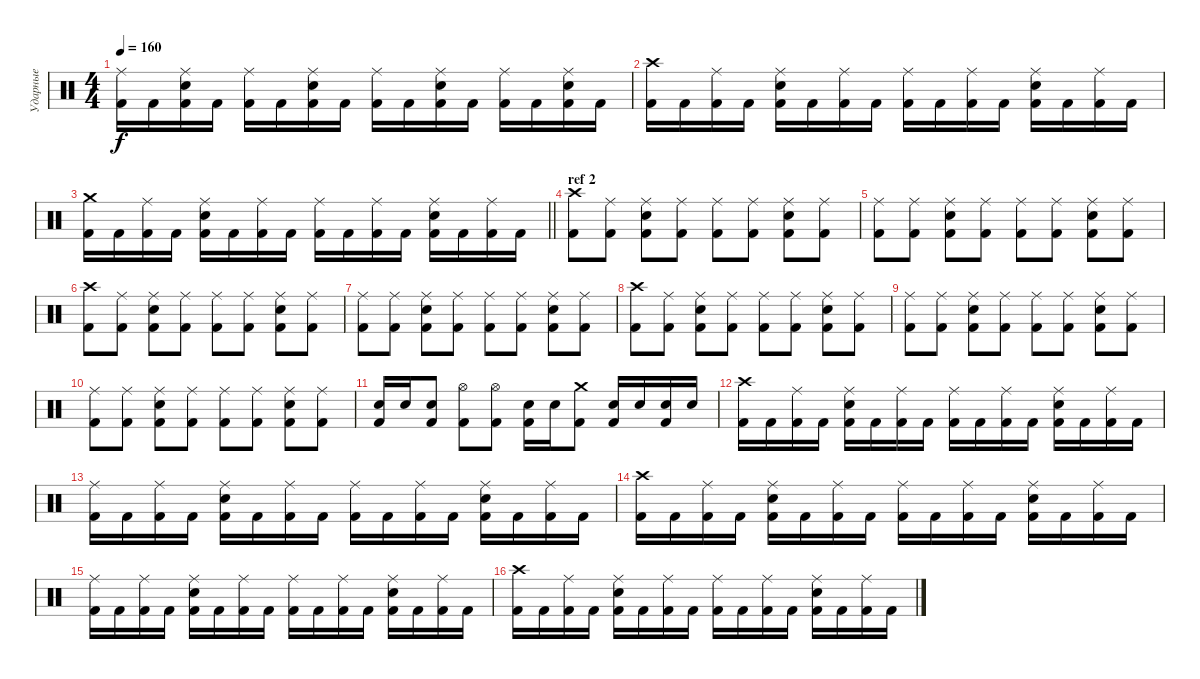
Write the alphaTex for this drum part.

\track ("Ударные" "Ударные") {instrument percussion}
\staff {score}
\articulation defaults
\ts (4 4)
\tempo 160
\clef neutral
\ks c
("Ride (middle)" "Kick (hit) 2").16{dy f} "Kick (hit) 2".16 ("Ride (middle)" "Electric Snare (hit)" "Kick (hit) 2").16 "Kick (hit) 2".16 ("Ride (middle)" "Kick (hit) 2").16 "Kick (hit) 2".16 ("Ride (middle)" "Electric Snare (hit)" "Kick (hit) 2").16 "Kick (hit) 2".16 ("Ride (middle)" "Kick (hit) 2").16 "Kick (hit) 2".16 ("Ride (middle)" "Electric Snare (hit)" "Kick (hit) 2").16 "Kick (hit) 2".16 ("Ride (middle)" "Kick (hit) 2").16 "Kick (hit) 2".16 ("Ride (middle)" "Electric Snare (hit)" "Kick (hit) 2").16 "Kick (hit) 2".16 |
("Crash high (hit)" "Kick (hit) 2").16 "Kick (hit) 2".16 ("Ride (middle)" "Kick (hit) 2").16 "Kick (hit) 2".16 ("Ride (middle)" "Electric Snare (hit)" "Kick (hit) 2").16 "Kick (hit) 2".16 ("Ride (middle)" "Kick (hit) 2").16 "Kick (hit) 2".16 ("Ride (middle)" "Kick (hit) 2").16 "Kick (hit) 2".16 ("Ride (middle)" "Kick (hit) 2").16 "Kick (hit) 2".16 ("Ride (middle)" "Electric Snare (hit)" "Kick (hit) 2").16 "Kick (hit) 2".16 ("Ride (middle)" "Kick (hit) 2").16 "Kick (hit) 2".16 |
\barLineRight lightlight
("Crash medium (hit)" "Kick (hit) 2").16 "Kick (hit) 2".16 ("Ride (middle)" "Kick (hit) 2").16 "Kick (hit) 2".16 ("Ride (middle)" "Electric Snare (hit)" "Kick (hit) 2").16 "Kick (hit) 2".16 ("Ride (middle)" "Kick (hit) 2").16 "Kick (hit) 2".16 ("Ride (middle)" "Kick (hit) 2").16 "Kick (hit) 2".16 ("Ride (middle)" "Kick (hit) 2").16 "Kick (hit) 2".16 ("Ride (middle)" "Electric Snare (hit)" "Kick (hit) 2").16 "Kick (hit) 2".16 ("Ride (middle)" "Kick (hit) 2").16 "Kick (hit) 2".16 |
\section ("" "ref 2")
("Crash high (hit)" "Kick (hit) 2").8 ("Ride (middle)" "Kick (hit) 2").8 ("Ride (middle)" "Electric Snare (hit)" "Kick (hit) 2").8 ("Ride (middle)" "Kick (hit) 2").8 ("Ride (middle)" "Kick (hit) 2").8 ("Ride (middle)" "Kick (hit) 2").8 ("Ride (middle)" "Electric Snare (hit)" "Kick (hit) 2").8 ("Ride (middle)" "Kick (hit) 2").8 |
("Ride (middle)" "Kick (hit) 2").8 ("Ride (middle)" "Kick (hit) 2").8 ("Ride (middle)" "Electric Snare (hit)" "Kick (hit) 2").8 ("Ride (middle)" "Kick (hit) 2").8 ("Ride (middle)" "Kick (hit) 2").8 ("Ride (middle)" "Kick (hit) 2").8 ("Ride (middle)" "Electric Snare (hit)" "Kick (hit) 2").8 ("Ride (middle)" "Kick (hit) 2").8 |
("Crash high (hit)" "Kick (hit) 2").8 ("Ride (middle)" "Kick (hit) 2").8 ("Ride (middle)" "Electric Snare (hit)" "Kick (hit) 2").8 ("Ride (middle)" "Kick (hit) 2").8 ("Ride (middle)" "Kick (hit) 2").8 ("Ride (middle)" "Kick (hit) 2").8 ("Ride (middle)" "Electric Snare (hit)" "Kick (hit) 2").8 ("Ride (middle)" "Kick (hit) 2").8 |
("Ride (middle)" "Kick (hit) 2").8 ("Ride (middle)" "Kick (hit) 2").8 ("Ride (middle)" "Electric Snare (hit)" "Kick (hit) 2").8 ("Ride (middle)" "Kick (hit) 2").8 ("Ride (middle)" "Kick (hit) 2").8 ("Ride (middle)" "Kick (hit) 2").8 ("Ride (middle)" "Electric Snare (hit)" "Kick (hit) 2").8 ("Ride (middle)" "Kick (hit) 2").8 |
("Crash high (hit)" "Kick (hit) 2").8 ("Ride (middle)" "Kick (hit) 2").8 ("Ride (middle)" "Electric Snare (hit)" "Kick (hit) 2").8 ("Ride (middle)" "Kick (hit) 2").8 ("Ride (middle)" "Kick (hit) 2").8 ("Ride (middle)" "Kick (hit) 2").8 ("Ride (middle)" "Electric Snare (hit)" "Kick (hit) 2").8 ("Ride (middle)" "Kick (hit) 2").8 |
("Ride (middle)" "Kick (hit) 2").8 ("Ride (middle)" "Kick (hit) 2").8 ("Ride (middle)" "Electric Snare (hit)" "Kick (hit) 2").8 ("Ride (middle)" "Kick (hit) 2").8 ("Ride (middle)" "Kick (hit) 2").8 ("Ride (middle)" "Kick (hit) 2").8 ("Ride (middle)" "Electric Snare (hit)" "Kick (hit) 2").8 ("Ride (middle)" "Kick (hit) 2").8 |
("Ride (middle)" "Kick (hit) 2").8 ("Ride (middle)" "Kick (hit) 2").8 ("Ride (middle)" "Electric Snare (hit)" "Kick (hit) 2").8 ("Ride (middle)" "Kick (hit) 2").8 ("Ride (middle)" "Kick (hit) 2").8 ("Ride (middle)" "Kick (hit) 2").8 ("Ride (middle)" "Electric Snare (hit)" "Kick (hit) 2").8 ("Ride (middle)" "Kick (hit) 2").8 |
("Electric Snare (hit)" "Kick (hit) 2").16 "Electric Snare (hit)".16 ("Electric Snare (hit)" "Kick (hit) 2").8 ("Hi-Hat (open)" "Kick (hit) 2").8 ("Hi-Hat (open)" "Kick (hit) 2").8 ("Electric Snare (hit)" "Kick (hit) 2").16 "Electric Snare (hit)".16 ("Crash medium (hit)" "Kick (hit) 2").8 ("Electric Snare (hit)" "Kick (hit) 2").16 "Electric Snare (hit)".16 ("Electric Snare (hit)" "Kick (hit) 2").16 "Electric Snare (hit)".16 |
("Crash high (hit)" "Kick (hit) 2").16 "Kick (hit) 2".16 ("Ride (middle)" "Kick (hit) 2").16 "Kick (hit) 2".16 ("Ride (middle)" "Electric Snare (hit)" "Kick (hit) 2").16 "Kick (hit) 2".16 ("Ride (middle)" "Kick (hit) 2").16 "Kick (hit) 2".16 ("Ride (middle)" "Kick (hit) 2").16 "Kick (hit) 2".16 ("Ride (middle)" "Kick (hit) 2").16 "Kick (hit) 2".16 ("Ride (middle)" "Electric Snare (hit)" "Kick (hit) 2").16 "Kick (hit) 2".16 ("Ride (middle)" "Kick (hit) 2").16 "Kick (hit) 2".16 |
("Ride (middle)" "Kick (hit) 2").16 "Kick (hit) 2".16 ("Ride (middle)" "Kick (hit) 2").16 "Kick (hit) 2".16 ("Ride (middle)" "Electric Snare (hit)" "Kick (hit) 2").16 "Kick (hit) 2".16 ("Ride (middle)" "Kick (hit) 2").16 "Kick (hit) 2".16 ("Ride (middle)" "Kick (hit) 2").16 "Kick (hit) 2".16 ("Ride (middle)" "Kick (hit) 2").16 "Kick (hit) 2".16 ("Ride (middle)" "Electric Snare (hit)" "Kick (hit) 2").16 "Kick (hit) 2".16 ("Ride (middle)" "Kick (hit) 2").16 "Kick (hit) 2".16 |
("Crash high (hit)" "Kick (hit) 2").16 "Kick (hit) 2".16 ("Ride (middle)" "Kick (hit) 2").16 "Kick (hit) 2".16 ("Ride (middle)" "Electric Snare (hit)" "Kick (hit) 2").16 "Kick (hit) 2".16 ("Ride (middle)" "Kick (hit) 2").16 "Kick (hit) 2".16 ("Ride (middle)" "Kick (hit) 2").16 "Kick (hit) 2".16 ("Ride (middle)" "Kick (hit) 2").16 "Kick (hit) 2".16 ("Ride (middle)" "Electric Snare (hit)" "Kick (hit) 2").16 "Kick (hit) 2".16 ("Ride (middle)" "Kick (hit) 2").16 "Kick (hit) 2".16 |
("Ride (middle)" "Kick (hit) 2").16 "Kick (hit) 2".16 ("Ride (middle)" "Kick (hit) 2").16 "Kick (hit) 2".16 ("Ride (middle)" "Electric Snare (hit)" "Kick (hit) 2").16 "Kick (hit) 2".16 ("Ride (middle)" "Kick (hit) 2").16 "Kick (hit) 2".16 ("Ride (middle)" "Kick (hit) 2").16 "Kick (hit) 2".16 ("Ride (middle)" "Kick (hit) 2").16 "Kick (hit) 2".16 ("Ride (middle)" "Electric Snare (hit)" "Kick (hit) 2").16 "Kick (hit) 2".16 ("Ride (middle)" "Kick (hit) 2").16 "Kick (hit) 2".16 |
("Crash high (hit)" "Kick (hit) 2").16 "Kick (hit) 2".16 ("Ride (middle)" "Kick (hit) 2").16 "Kick (hit) 2".16 ("Ride (middle)" "Electric Snare (hit)" "Kick (hit) 2").16 "Kick (hit) 2".16 ("Ride (middle)" "Kick (hit) 2").16 "Kick (hit) 2".16 ("Ride (middle)" "Kick (hit) 2").16 "Kick (hit) 2".16 ("Ride (middle)" "Kick (hit) 2").16 "Kick (hit) 2".16 ("Ride (middle)" "Electric Snare (hit)" "Kick (hit) 2").16 "Kick (hit) 2".16 ("Ride (middle)" "Kick (hit) 2").16 "Kick (hit) 2".16
